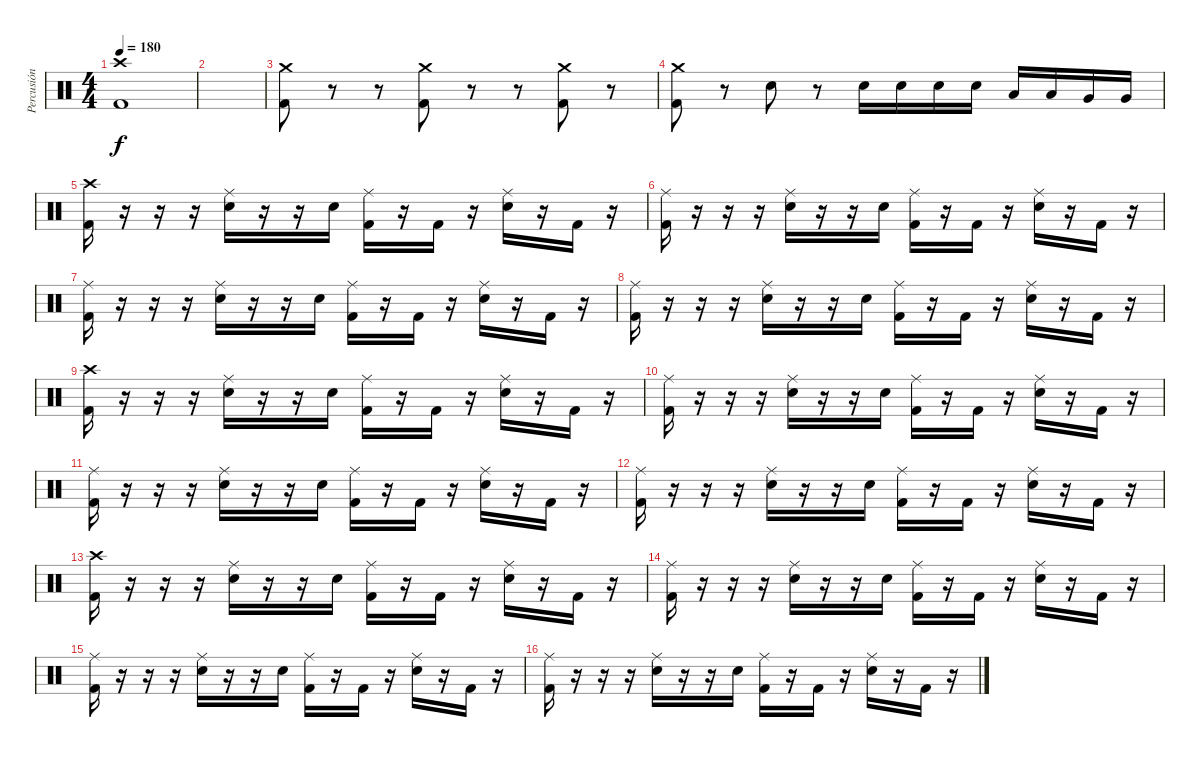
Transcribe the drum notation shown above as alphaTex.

\track ("Percusión" "Percusión") {instrument percussion}
\staff {score}
\articulation defaults
\ts (4 4)
\tempo 180
\clef neutral
\ks c
("Crash high (hit)" "Kick (hit) 2").1{dy f} |
|
("Crash medium (hit)" "Kick (hit) 2").8 r.8 r.8 ("Crash medium (hit)" "Kick (hit) 2").8 r.8 r.8 ("Crash medium (hit)" "Kick (hit) 2").8 r.8 |
("Crash medium (hit)" "Kick (hit) 2").8 r.8 "Electric Snare (hit)".8 r.8 "Electric Snare (hit)".16 "Electric Snare (hit)".16 "Electric Snare (hit)".16 "Electric Snare (hit)".16 "Low Tom (hit)".16 "Low Tom (hit)".16 "Very Low Tom (hit)".16 "Very Low Tom (hit)".16 |
("Crash high (hit)" "Kick (hit) 2").16 r.16 r.16 r.16 ("Ride (middle)" "Electric Snare (hit)").16 r.16 r.16 "Electric Snare (hit)".16 ("Ride (middle)" "Kick (hit) 2").16 r.16 "Kick (hit) 2".16 r.16 ("Ride (middle)" "Electric Snare (hit)").16 r.16 "Kick (hit) 2".16 r.16 |
("Ride (middle)" "Kick (hit) 2").16 r.16 r.16 r.16 ("Ride (middle)" "Electric Snare (hit)").16 r.16 r.16 "Electric Snare (hit)".16 ("Ride (middle)" "Kick (hit) 2").16 r.16 "Kick (hit) 2".16 r.16 ("Ride (middle)" "Electric Snare (hit)").16 r.16 "Kick (hit) 2".16 r.16 |
("Ride (middle)" "Kick (hit) 2").16 r.16 r.16 r.16 ("Ride (middle)" "Electric Snare (hit)").16 r.16 r.16 "Electric Snare (hit)".16 ("Ride (middle)" "Kick (hit) 2").16 r.16 "Kick (hit) 2".16 r.16 ("Ride (middle)" "Electric Snare (hit)").16 r.16 "Kick (hit) 2".16 r.16 |
("Ride (middle)" "Kick (hit) 2").16 r.16 r.16 r.16 ("Ride (middle)" "Electric Snare (hit)").16 r.16 r.16 "Electric Snare (hit)".16 ("Ride (middle)" "Kick (hit) 2").16 r.16 "Kick (hit) 2".16 r.16 ("Ride (middle)" "Electric Snare (hit)").16 r.16 "Kick (hit) 2".16 r.16 |
("Crash high (hit)" "Kick (hit) 2").16 r.16 r.16 r.16 ("Ride (middle)" "Electric Snare (hit)").16 r.16 r.16 "Electric Snare (hit)".16 ("Ride (middle)" "Kick (hit) 2").16 r.16 "Kick (hit) 2".16 r.16 ("Ride (middle)" "Electric Snare (hit)").16 r.16 "Kick (hit) 2".16 r.16 |
("Ride (middle)" "Kick (hit) 2").16 r.16 r.16 r.16 ("Ride (middle)" "Electric Snare (hit)").16 r.16 r.16 "Electric Snare (hit)".16 ("Ride (middle)" "Kick (hit) 2").16 r.16 "Kick (hit) 2".16 r.16 ("Ride (middle)" "Electric Snare (hit)").16 r.16 "Kick (hit) 2".16 r.16 |
("Ride (middle)" "Kick (hit) 2").16 r.16 r.16 r.16 ("Ride (middle)" "Electric Snare (hit)").16 r.16 r.16 "Electric Snare (hit)".16 ("Ride (middle)" "Kick (hit) 2").16 r.16 "Kick (hit) 2".16 r.16 ("Ride (middle)" "Electric Snare (hit)").16 r.16 "Kick (hit) 2".16 r.16 |
("Ride (middle)" "Kick (hit) 2").16 r.16 r.16 r.16 ("Ride (middle)" "Electric Snare (hit)").16 r.16 r.16 "Electric Snare (hit)".16 ("Ride (middle)" "Kick (hit) 2").16 r.16 "Kick (hit) 2".16 r.16 ("Ride (middle)" "Electric Snare (hit)").16 r.16 "Kick (hit) 2".16 r.16 |
("Crash high (hit)" "Kick (hit) 2").16 r.16 r.16 r.16 ("Ride (middle)" "Electric Snare (hit)").16 r.16 r.16 "Electric Snare (hit)".16 ("Ride (middle)" "Kick (hit) 2").16 r.16 "Kick (hit) 2".16 r.16 ("Ride (middle)" "Electric Snare (hit)").16 r.16 "Kick (hit) 2".16 r.16 |
("Ride (middle)" "Kick (hit) 2").16 r.16 r.16 r.16 ("Ride (middle)" "Electric Snare (hit)").16 r.16 r.16 "Electric Snare (hit)".16 ("Ride (middle)" "Kick (hit) 2").16 r.16 "Kick (hit) 2".16 r.16 ("Ride (middle)" "Electric Snare (hit)").16 r.16 "Kick (hit) 2".16 r.16 |
("Ride (middle)" "Kick (hit) 2").16 r.16 r.16 r.16 ("Ride (middle)" "Electric Snare (hit)").16 r.16 r.16 "Electric Snare (hit)".16 ("Ride (middle)" "Kick (hit) 2").16 r.16 "Kick (hit) 2".16 r.16 ("Ride (middle)" "Electric Snare (hit)").16 r.16 "Kick (hit) 2".16 r.16 |
("Ride (middle)" "Kick (hit) 2").16 r.16 r.16 r.16 ("Ride (middle)" "Electric Snare (hit)").16 r.16 r.16 "Electric Snare (hit)".16 ("Ride (middle)" "Kick (hit) 2").16 r.16 "Kick (hit) 2".16 r.16 ("Ride (middle)" "Electric Snare (hit)").16 r.16 "Kick (hit) 2".16 r.16
